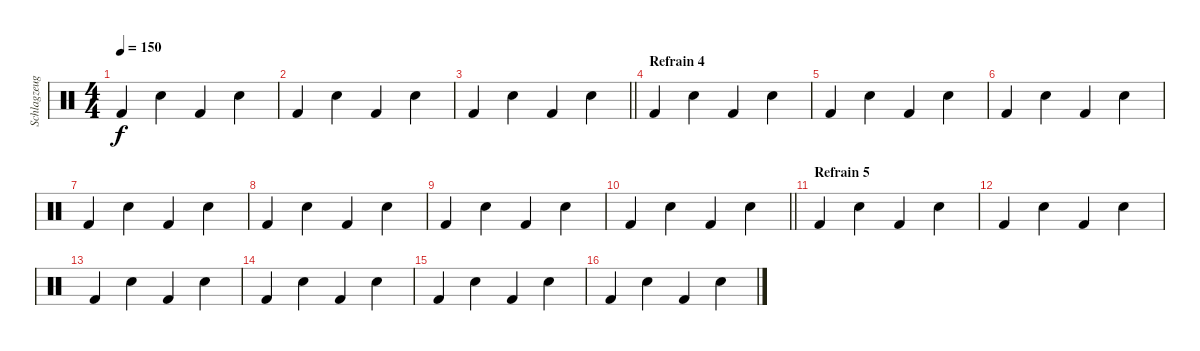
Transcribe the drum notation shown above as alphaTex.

\track ("Schlagzeug" "Schlagzeug") {instrument percussion}
\staff {score}
\articulation defaults
\ts (4 4)
\tempo 150
\clef neutral
\ks c "Kick (hit) 2".4{dy f} "Electric Snare (hit)".4 "Kick (hit) 2".4 "Electric Snare (hit)".4
|
"Kick (hit) 2".4 "Electric Snare (hit)".4 "Kick (hit) 2".4 "Electric Snare (hit)".4 |
\barLineRight lightlight "Kick (hit) 2".4 "Electric Snare (hit)".4 "Kick (hit) 2".4 "Electric Snare (hit)".4
|
\section ("" "Refrain 4")
"Kick (hit) 2".4 "Electric Snare (hit)".4 "Kick (hit) 2".4 "Electric Snare (hit)".4 |
"Kick (hit) 2".4 "Electric Snare (hit)".4 "Kick (hit) 2".4 "Electric Snare (hit)".4 |
"Kick (hit) 2".4 "Electric Snare (hit)".4 "Kick (hit) 2".4 "Electric Snare (hit)".4 |
"Kick (hit) 2".4 "Electric Snare (hit)".4 "Kick (hit) 2".4 "Electric Snare (hit)".4 |
"Kick (hit) 2".4 "Electric Snare (hit)".4 "Kick (hit) 2".4 "Electric Snare (hit)".4 |
"Kick (hit) 2".4 "Electric Snare (hit)".4 "Kick (hit) 2".4 "Electric Snare (hit)".4 |
\barLineRight lightlight "Kick (hit) 2".4 "Electric Snare (hit)".4 "Kick (hit) 2".4 "Electric Snare (hit)".4
|
\section ("" "Refrain 5")
"Kick (hit) 2".4 "Electric Snare (hit)".4 "Kick (hit) 2".4 "Electric Snare (hit)".4 |
"Kick (hit) 2".4 "Electric Snare (hit)".4 "Kick (hit) 2".4 "Electric Snare (hit)".4 |
"Kick (hit) 2".4 "Electric Snare (hit)".4 "Kick (hit) 2".4 "Electric Snare (hit)".4 |
"Kick (hit) 2".4 "Electric Snare (hit)".4 "Kick (hit) 2".4 "Electric Snare (hit)".4 |
"Kick (hit) 2".4 "Electric Snare (hit)".4 "Kick (hit) 2".4 "Electric Snare (hit)".4 |
"Kick (hit) 2".4 "Electric Snare (hit)".4 "Kick (hit) 2".4 "Electric Snare (hit)".4
